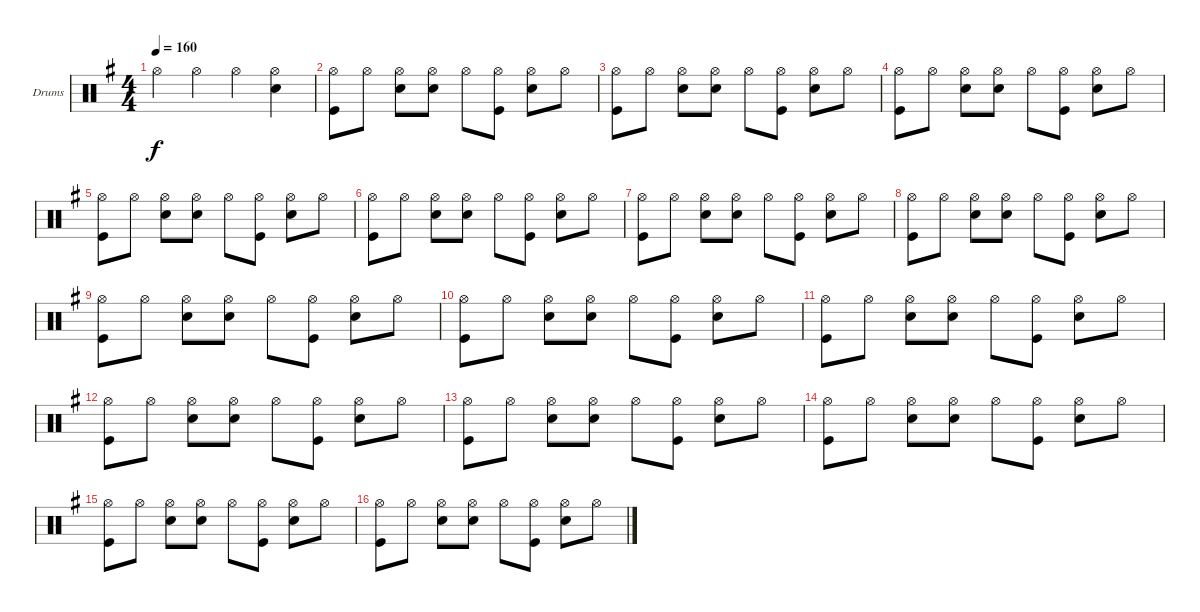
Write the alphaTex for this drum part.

\bracketExtendMode groupsimilarinstruments
\firstSystemTrackNameOrientation horizontal
\otherSystemsTrackNameOrientation horizontal
\track ("Fabrizio Moretti" "Drums") {instrument percussion}
\staff {score}
\articulation defaults
\ts (4 4)
\tempo 160
\clef neutral
\ks g "Hi-Hat (open)".4{dy f} "Hi-Hat (open)".4 "Hi-Hat (open)".4
("Hi-Hat (open)" "Snare (hit) 2").4 |
("Hi-Hat (open)" "Kick (hit)").8 "Hi-Hat (open)".8 ("Hi-Hat (open)" "Snare (hit) 2").8 ("Hi-Hat (open)" "Snare (hit) 2").8 "Hi-Hat (open)".8 ("Hi-Hat (open)" "Kick (hit)").8 ("Hi-Hat (open)" "Snare (hit) 2").8 "Hi-Hat (open)".8 |
("Hi-Hat (open)" "Kick (hit)").8 "Hi-Hat (open)".8 ("Hi-Hat (open)" "Snare (hit) 2").8 ("Hi-Hat (open)" "Snare (hit) 2").8 "Hi-Hat (open)".8 ("Hi-Hat (open)" "Kick (hit)").8 ("Hi-Hat (open)" "Snare (hit) 2").8 "Hi-Hat (open)".8 |
("Hi-Hat (open)" "Kick (hit)").8 "Hi-Hat (open)".8 ("Hi-Hat (open)" "Snare (hit) 2").8 ("Hi-Hat (open)" "Snare (hit) 2").8 "Hi-Hat (open)".8 ("Hi-Hat (open)" "Kick (hit)").8 ("Hi-Hat (open)" "Snare (hit) 2").8 "Hi-Hat (open)".8 |
("Hi-Hat (open)" "Kick (hit)").8 "Hi-Hat (open)".8 ("Hi-Hat (open)" "Snare (hit) 2").8 ("Hi-Hat (open)" "Snare (hit) 2").8 "Hi-Hat (open)".8 ("Hi-Hat (open)" "Kick (hit)").8 ("Hi-Hat (open)" "Snare (hit) 2").8 "Hi-Hat (open)".8 |
("Hi-Hat (open)" "Kick (hit)").8 "Hi-Hat (open)".8 ("Hi-Hat (open)" "Snare (hit) 2").8 ("Hi-Hat (open)" "Snare (hit) 2").8 "Hi-Hat (open)".8 ("Hi-Hat (open)" "Kick (hit)").8 ("Hi-Hat (open)" "Snare (hit) 2").8 "Hi-Hat (open)".8 |
("Hi-Hat (open)" "Kick (hit)").8 "Hi-Hat (open)".8 ("Hi-Hat (open)" "Snare (hit) 2").8 ("Hi-Hat (open)" "Snare (hit) 2").8 "Hi-Hat (open)".8 ("Hi-Hat (open)" "Kick (hit)").8 ("Hi-Hat (open)" "Snare (hit) 2").8 "Hi-Hat (open)".8 |
("Hi-Hat (open)" "Kick (hit)").8 "Hi-Hat (open)".8 ("Hi-Hat (open)" "Snare (hit) 2").8 ("Hi-Hat (open)" "Snare (hit) 2").8 "Hi-Hat (open)".8 ("Hi-Hat (open)" "Kick (hit)").8 ("Hi-Hat (open)" "Snare (hit) 2").8 "Hi-Hat (open)".8 |
("Hi-Hat (open)" "Kick (hit)").8 "Hi-Hat (open)".8 ("Hi-Hat (open)" "Snare (hit) 2").8 ("Hi-Hat (open)" "Snare (hit) 2").8 "Hi-Hat (open)".8 ("Hi-Hat (open)" "Kick (hit)").8 ("Hi-Hat (open)" "Snare (hit) 2").8 "Hi-Hat (open)".8 |
("Hi-Hat (open)" "Kick (hit)").8 "Hi-Hat (open)".8 ("Hi-Hat (open)" "Snare (hit) 2").8 ("Hi-Hat (open)" "Snare (hit) 2").8 "Hi-Hat (open)".8 ("Hi-Hat (open)" "Kick (hit)").8 ("Hi-Hat (open)" "Snare (hit) 2").8 "Hi-Hat (open)".8 |
("Hi-Hat (open)" "Kick (hit)").8 "Hi-Hat (open)".8 ("Hi-Hat (open)" "Snare (hit) 2").8 ("Hi-Hat (open)" "Snare (hit) 2").8 "Hi-Hat (open)".8 ("Hi-Hat (open)" "Kick (hit)").8 ("Hi-Hat (open)" "Snare (hit) 2").8 "Hi-Hat (open)".8 |
("Hi-Hat (open)" "Kick (hit)").8 "Hi-Hat (open)".8 ("Hi-Hat (open)" "Snare (hit) 2").8 ("Hi-Hat (open)" "Snare (hit) 2").8 "Hi-Hat (open)".8 ("Hi-Hat (open)" "Kick (hit)").8 ("Hi-Hat (open)" "Snare (hit) 2").8 "Hi-Hat (open)".8 |
("Hi-Hat (open)" "Kick (hit)").8 "Hi-Hat (open)".8 ("Hi-Hat (open)" "Snare (hit) 2").8 ("Hi-Hat (open)" "Snare (hit) 2").8 "Hi-Hat (open)".8 ("Hi-Hat (open)" "Kick (hit)").8 ("Hi-Hat (open)" "Snare (hit) 2").8 "Hi-Hat (open)".8 |
("Hi-Hat (open)" "Kick (hit)").8 "Hi-Hat (open)".8 ("Hi-Hat (open)" "Snare (hit) 2").8 ("Hi-Hat (open)" "Snare (hit) 2").8 "Hi-Hat (open)".8 ("Hi-Hat (open)" "Kick (hit)").8 ("Hi-Hat (open)" "Snare (hit) 2").8 "Hi-Hat (open)".8 |
("Hi-Hat (open)" "Kick (hit)").8 "Hi-Hat (open)".8 ("Hi-Hat (open)" "Snare (hit) 2").8 ("Hi-Hat (open)" "Snare (hit) 2").8 "Hi-Hat (open)".8 ("Hi-Hat (open)" "Kick (hit)").8 ("Hi-Hat (open)" "Snare (hit) 2").8 "Hi-Hat (open)".8 |
("Hi-Hat (open)" "Kick (hit)").8 "Hi-Hat (open)".8 ("Hi-Hat (open)" "Snare (hit) 2").8 ("Hi-Hat (open)" "Snare (hit) 2").8 "Hi-Hat (open)".8 ("Hi-Hat (open)" "Kick (hit)").8 ("Hi-Hat (open)" "Snare (hit) 2").8 "Hi-Hat (open)".8
